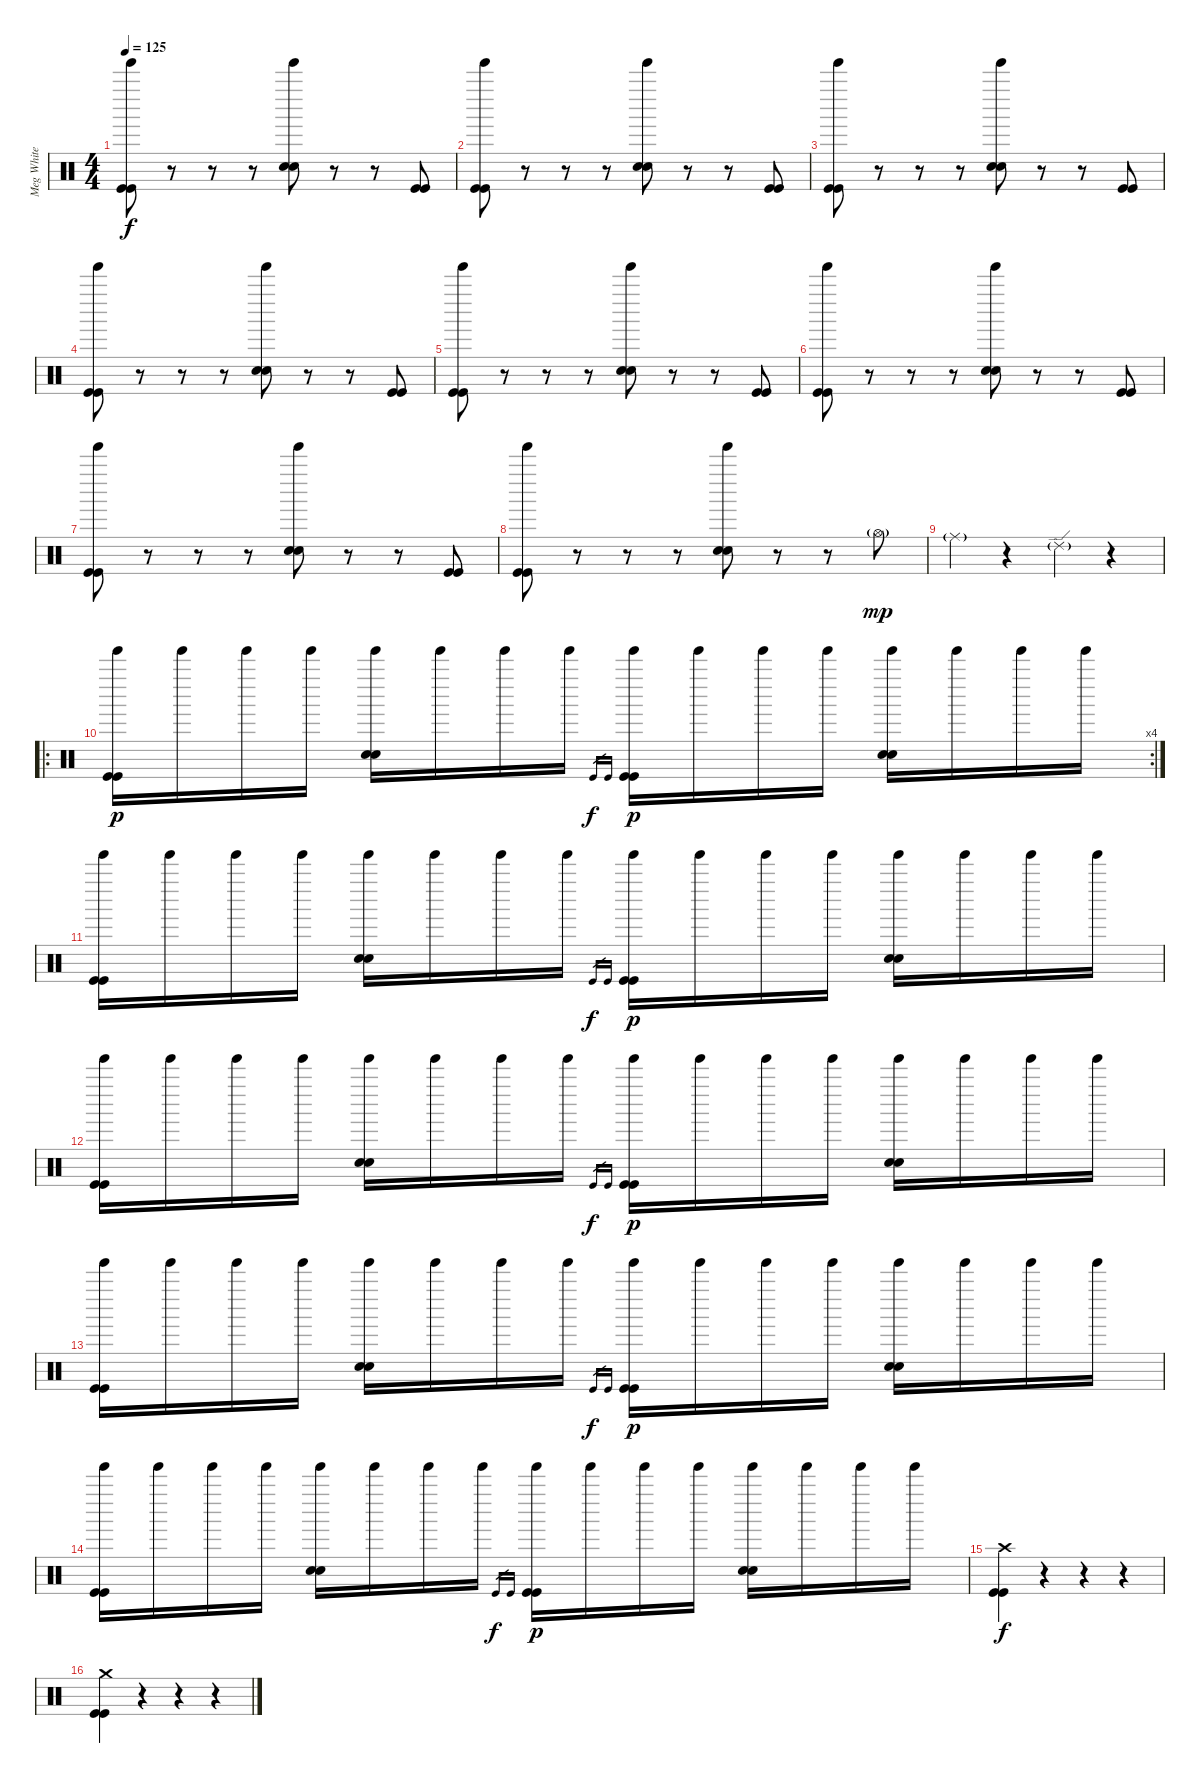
\track ("Meg White" "Meg White") {instrument percussion}
\staff {score}
\articulation defaults
\ts (4 4)
\tempo 125
\clef neutral
\ks c
("Tinkle Bell (hit)" "Kick (hit)" "Kick (hit)").8{dy f} r.8 r.8 r.8 ("Tinkle Bell (hit)" "Snare (hit) 2" "Snare (hit) 2").8 r.8 r.8 ("Kick (hit)" "Kick (hit)").8 |
("Tinkle Bell (hit)" "Kick (hit)" "Kick (hit)").8 r.8 r.8 r.8 ("Tinkle Bell (hit)" "Snare (hit) 2" "Snare (hit) 2").8 r.8 r.8 ("Kick (hit)" "Kick (hit)").8 |
("Tinkle Bell (hit)" "Kick (hit)" "Kick (hit)").8 r.8 r.8 r.8 ("Tinkle Bell (hit)" "Snare (hit) 2" "Snare (hit) 2").8 r.8 r.8 ("Kick (hit)" "Kick (hit)").8 |
("Tinkle Bell (hit)" "Kick (hit)" "Kick (hit)").8 r.8 r.8 r.8 ("Tinkle Bell (hit)" "Snare (hit) 2" "Snare (hit) 2").8 r.8 r.8 ("Kick (hit)" "Kick (hit)").8 |
("Tinkle Bell (hit)" "Kick (hit)" "Kick (hit)").8 r.8 r.8 r.8 ("Tinkle Bell (hit)" "Snare (hit) 2" "Snare (hit) 2").8 r.8 r.8 ("Kick (hit)" "Kick (hit)").8 |
("Tinkle Bell (hit)" "Kick (hit)" "Kick (hit)").8 r.8 r.8 r.8 ("Tinkle Bell (hit)" "Snare (hit) 2" "Snare (hit) 2").8 r.8 r.8 ("Kick (hit)" "Kick (hit)").8 |
("Tinkle Bell (hit)" "Kick (hit)" "Kick (hit)").8 r.8 r.8 r.8 ("Tinkle Bell (hit)" "Snare (hit) 2" "Snare (hit) 2").8 r.8 r.8 ("Kick (hit)" "Kick (hit)").8 |
("Tinkle Bell (hit)" "Kick (hit)" "Kick (hit)").8 r.8 r.8 r.8 ("Tinkle Bell (hit)" "Snare (hit) 2" "Snare (hit) 2").8 r.8 r.8 "Hi-Hat (open)"{g}.8{dy mp} |
"Ride (middle)"{g}.4 r.4 "Ride (edge) 2"{g}.4 r.4 |
\ro
\rc 4
("Tinkle Bell (hit)" "Kick (hit)" "Kick (hit)").16{dy p} "Tinkle Bell (hit)".16 "Tinkle Bell (hit)".16 "Tinkle Bell (hit)".16 ("Tinkle Bell (hit)" "Snare (hit) 2" "Snare (hit) 2").16 "Tinkle Bell (hit)".16 "Tinkle Bell (hit)".16 "Tinkle Bell (hit)".16 "Kick (hit)".16{gr dy f} "Kick (hit)".16{gr} ("Tinkle Bell (hit)" "Kick (hit)" "Kick (hit)").16{dy p} "Tinkle Bell (hit)".16 "Tinkle Bell (hit)".16 "Tinkle Bell (hit)".16 ("Tinkle Bell (hit)" "Snare (hit) 2" "Snare (hit) 2").16 "Tinkle Bell (hit)".16 "Tinkle Bell (hit)".16 "Tinkle Bell (hit)".16 |
("Tinkle Bell (hit)" "Kick (hit)" "Kick (hit)").16 "Tinkle Bell (hit)".16 "Tinkle Bell (hit)".16 "Tinkle Bell (hit)".16 ("Tinkle Bell (hit)" "Snare (hit) 2" "Snare (hit) 2").16 "Tinkle Bell (hit)".16 "Tinkle Bell (hit)".16 "Tinkle Bell (hit)".16 "Kick (hit)".16{gr dy f} "Kick (hit)".16{gr} ("Tinkle Bell (hit)" "Kick (hit)" "Kick (hit)").16{dy p} "Tinkle Bell (hit)".16 "Tinkle Bell (hit)".16 "Tinkle Bell (hit)".16 ("Tinkle Bell (hit)" "Snare (hit) 2" "Snare (hit) 2").16 "Tinkle Bell (hit)".16 "Tinkle Bell (hit)".16 "Tinkle Bell (hit)".16 |
("Tinkle Bell (hit)" "Kick (hit)" "Kick (hit)").16 "Tinkle Bell (hit)".16 "Tinkle Bell (hit)".16 "Tinkle Bell (hit)".16 ("Tinkle Bell (hit)" "Snare (hit) 2" "Snare (hit) 2").16 "Tinkle Bell (hit)".16 "Tinkle Bell (hit)".16 "Tinkle Bell (hit)".16 "Kick (hit)".16{gr dy f} "Kick (hit)".16{gr} ("Tinkle Bell (hit)" "Kick (hit)" "Kick (hit)").16{dy p} "Tinkle Bell (hit)".16 "Tinkle Bell (hit)".16 "Tinkle Bell (hit)".16 ("Tinkle Bell (hit)" "Snare (hit) 2" "Snare (hit) 2").16 "Tinkle Bell (hit)".16 "Tinkle Bell (hit)".16 "Tinkle Bell (hit)".16 |
("Tinkle Bell (hit)" "Kick (hit)" "Kick (hit)").16 "Tinkle Bell (hit)".16 "Tinkle Bell (hit)".16 "Tinkle Bell (hit)".16 ("Tinkle Bell (hit)" "Snare (hit) 2" "Snare (hit) 2").16 "Tinkle Bell (hit)".16 "Tinkle Bell (hit)".16 "Tinkle Bell (hit)".16 "Kick (hit)".16{gr dy f} "Kick (hit)".16{gr} ("Tinkle Bell (hit)" "Kick (hit)" "Kick (hit)").16{dy p} "Tinkle Bell (hit)".16 "Tinkle Bell (hit)".16 "Tinkle Bell (hit)".16 ("Tinkle Bell (hit)" "Snare (hit) 2" "Snare (hit) 2").16 "Tinkle Bell (hit)".16 "Tinkle Bell (hit)".16 "Tinkle Bell (hit)".16 |
("Tinkle Bell (hit)" "Kick (hit)" "Kick (hit)").16 "Tinkle Bell (hit)".16 "Tinkle Bell (hit)".16 "Tinkle Bell (hit)".16 ("Tinkle Bell (hit)" "Snare (hit) 2" "Snare (hit) 2").16 "Tinkle Bell (hit)".16 "Tinkle Bell (hit)".16 "Tinkle Bell (hit)".16 "Kick (hit)".16{gr dy f} "Kick (hit)".16{gr} ("Tinkle Bell (hit)" "Kick (hit)" "Kick (hit)").16{dy p} "Tinkle Bell (hit)".16 "Tinkle Bell (hit)".16 "Tinkle Bell (hit)".16 ("Tinkle Bell (hit)" "Snare (hit) 2" "Snare (hit) 2").16 "Tinkle Bell (hit)".16 "Tinkle Bell (hit)".16 "Tinkle Bell (hit)".16 |
("Crash high (hit)" "Kick (hit)" "Kick (hit)").4{dy f} r.4 r.4 r.4 |
("Crash medium (hit)" "Kick (hit)" "Kick (hit)").4 r.4 r.4 r.4
